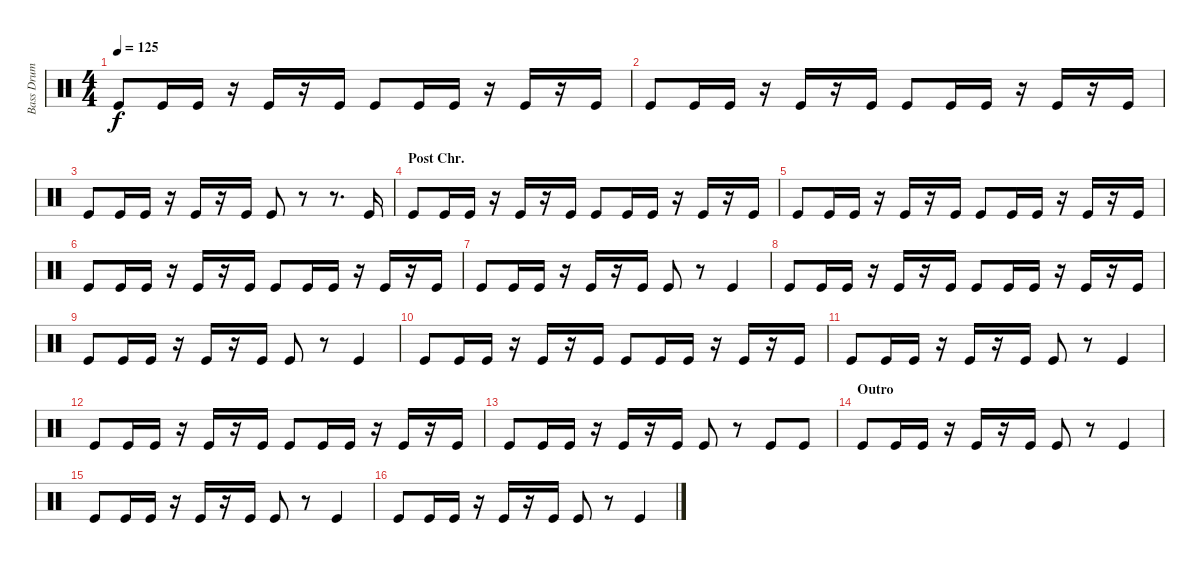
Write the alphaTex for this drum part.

\track ("Bass Drum Boost" "Bass Drum ") {instrument percussion}
\staff {score}
\articulation defaults
\ts (4 4)
\tempo 125
\clef neutral
\ks c "Kick (hit)".8{dy f} "Kick (hit)".16 "Kick (hit)".16
r.16 "Kick (hit)".16 r.16 "Kick (hit)".16 "Kick (hit)".8 "Kick (hit)".16 "Kick (hit)".16 r.16 "Kick (hit)".16 r.16 "Kick (hit)".16 |
"Kick (hit)".8 "Kick (hit)".16 "Kick (hit)".16 r.16 "Kick (hit)".16 r.16 "Kick (hit)".16 "Kick (hit)".8 "Kick (hit)".16 "Kick (hit)".16 r.16 "Kick (hit)".16 r.16 "Kick (hit)".16 |
"Kick (hit)".8 "Kick (hit)".16 "Kick (hit)".16 r.16 "Kick (hit)".16 r.16 "Kick (hit)".16 "Kick (hit)".8 r.8 r.8{d} "Kick (hit)".16 |
\section ("" "Post Chr.")
"Kick (hit)".8 "Kick (hit)".16 "Kick (hit)".16 r.16 "Kick (hit)".16 r.16 "Kick (hit)".16 "Kick (hit)".8 "Kick (hit)".16 "Kick (hit)".16 r.16 "Kick (hit)".16 r.16 "Kick (hit)".16 |
"Kick (hit)".8 "Kick (hit)".16 "Kick (hit)".16 r.16 "Kick (hit)".16 r.16 "Kick (hit)".16 "Kick (hit)".8 "Kick (hit)".16 "Kick (hit)".16 r.16 "Kick (hit)".16 r.16 "Kick (hit)".16 |
"Kick (hit)".8 "Kick (hit)".16 "Kick (hit)".16 r.16 "Kick (hit)".16 r.16 "Kick (hit)".16 "Kick (hit)".8 "Kick (hit)".16 "Kick (hit)".16 r.16 "Kick (hit)".16 r.16 "Kick (hit)".16 |
"Kick (hit)".8 "Kick (hit)".16 "Kick (hit)".16 r.16 "Kick (hit)".16 r.16 "Kick (hit)".16 "Kick (hit)".8 r.8 "Kick (hit)".4 |
"Kick (hit)".8 "Kick (hit)".16 "Kick (hit)".16 r.16 "Kick (hit)".16 r.16 "Kick (hit)".16 "Kick (hit)".8 "Kick (hit)".16 "Kick (hit)".16 r.16 "Kick (hit)".16 r.16 "Kick (hit)".16 |
"Kick (hit)".8 "Kick (hit)".16 "Kick (hit)".16 r.16 "Kick (hit)".16 r.16 "Kick (hit)".16 "Kick (hit)".8 r.8 "Kick (hit)".4 |
"Kick (hit)".8 "Kick (hit)".16 "Kick (hit)".16 r.16 "Kick (hit)".16 r.16 "Kick (hit)".16 "Kick (hit)".8 "Kick (hit)".16 "Kick (hit)".16 r.16 "Kick (hit)".16 r.16 "Kick (hit)".16 |
"Kick (hit)".8 "Kick (hit)".16 "Kick (hit)".16 r.16 "Kick (hit)".16 r.16 "Kick (hit)".16 "Kick (hit)".8 r.8 "Kick (hit)".4 |
"Kick (hit)".8 "Kick (hit)".16 "Kick (hit)".16 r.16 "Kick (hit)".16 r.16 "Kick (hit)".16 "Kick (hit)".8 "Kick (hit)".16 "Kick (hit)".16 r.16 "Kick (hit)".16 r.16 "Kick (hit)".16 |
"Kick (hit)".8 "Kick (hit)".16 "Kick (hit)".16 r.16 "Kick (hit)".16 r.16 "Kick (hit)".16 "Kick (hit)".8 r.8 "Kick (hit)".8 "Kick (hit)".8 |
\section ("" "Outro")
"Kick (hit)".8 "Kick (hit)".16 "Kick (hit)".16 r.16 "Kick (hit)".16 r.16 "Kick (hit)".16 "Kick (hit)".8 r.8 "Kick (hit)".4 |
"Kick (hit)".8 "Kick (hit)".16 "Kick (hit)".16 r.16 "Kick (hit)".16 r.16 "Kick (hit)".16 "Kick (hit)".8 r.8 "Kick (hit)".4 |
"Kick (hit)".8 "Kick (hit)".16 "Kick (hit)".16 r.16 "Kick (hit)".16 r.16 "Kick (hit)".16 "Kick (hit)".8 r.8 "Kick (hit)".4
